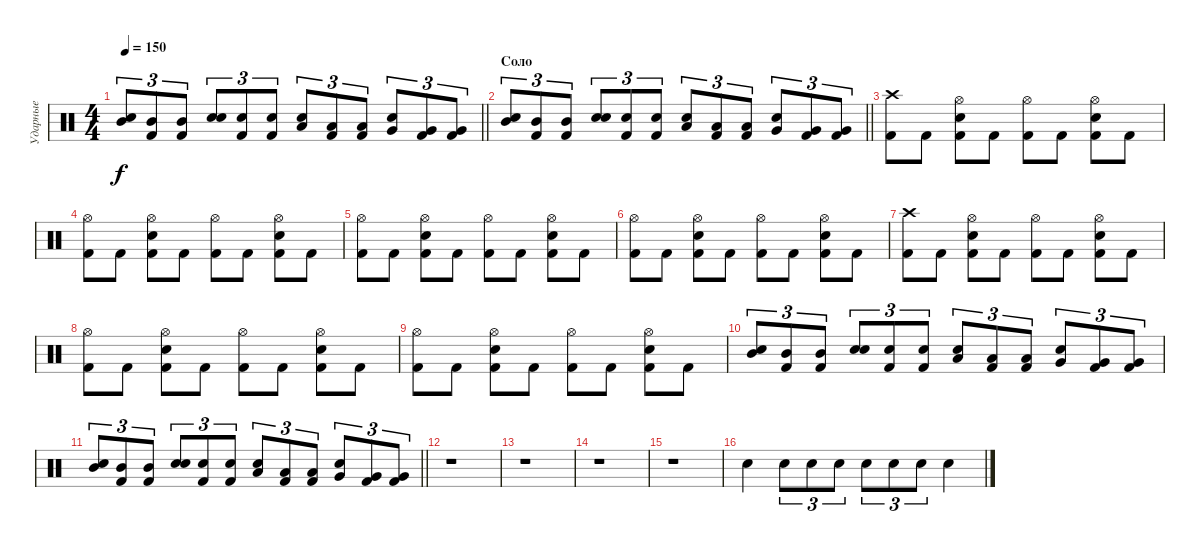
\track ("Ударные" "Ударные") {instrument percussion}
\staff {score}
\articulation defaults
\ts (4 4)
\tempo 150
\clef neutral
\barLineRight lightlight
\ks c
("Mid Tom (hit)" "Snare (hit) 2").8{tu (3 2) dy f} ("Mid Tom (hit)" "Kick (hit) 2").8{tu (3 2)} ("Mid Tom (hit)" "Kick (hit) 2").8{tu (3 2)} ("Electric Snare (hit)" "Snare (hit) 2").8{tu (3 2)} ("Electric Snare (hit)" "Kick (hit) 2").8{tu (3 2)} ("Electric Snare (hit)" "Kick (hit) 2").8{tu (3 2)} ("Low Tom (hit)" "Snare (hit) 2").8{tu (3 2)} ("Low Tom (hit)" "Kick (hit) 2").8{tu (3 2)} ("Low Tom (hit)" "Kick (hit) 2").8{tu (3 2)} ("Very Low Tom (hit)" "Snare (hit) 2").8{tu (3 2)} ("Very Low Tom (hit)" "Kick (hit) 2").8{tu (3 2)} ("Very Low Tom (hit)" "Kick (hit) 2").8{tu (3 2)} |
\section ("" "Соло")
\barLineRight lightlight
("Mid Tom (hit)" "Snare (hit) 2").8{tu (3 2)} ("Mid Tom (hit)" "Kick (hit) 2").8{tu (3 2)} ("Mid Tom (hit)" "Kick (hit) 2").8{tu (3 2)} ("Electric Snare (hit)" "Snare (hit) 2").8{tu (3 2)} ("Electric Snare (hit)" "Kick (hit) 2").8{tu (3 2)} ("Electric Snare (hit)" "Kick (hit) 2").8{tu (3 2)} ("Low Tom (hit)" "Snare (hit) 2").8{tu (3 2)} ("Low Tom (hit)" "Kick (hit) 2").8{tu (3 2)} ("Low Tom (hit)" "Kick (hit) 2").8{tu (3 2)} ("Very Low Tom (hit)" "Snare (hit) 2").8{tu (3 2)} ("Very Low Tom (hit)" "Kick (hit) 2").8{tu (3 2)} ("Very Low Tom (hit)" "Kick (hit) 2").8{tu (3 2)} |
("Kick (hit) 2" "Crash high (hit)").8 "Kick (hit) 2".8 ("Snare (hit) 2" "Kick (hit) 2" "Hi-Hat (open)").8 "Kick (hit) 2".8 ("Kick (hit) 2" "Hi-Hat (open)").8 "Kick (hit) 2".8 ("Snare (hit) 2" "Kick (hit) 2" "Hi-Hat (open)").8 "Kick (hit) 2".8 |
("Kick (hit) 2" "Hi-Hat (open)").8 "Kick (hit) 2".8 ("Snare (hit) 2" "Kick (hit) 2" "Hi-Hat (open)").8 "Kick (hit) 2".8 ("Kick (hit) 2" "Hi-Hat (open)").8 "Kick (hit) 2".8 ("Snare (hit) 2" "Kick (hit) 2" "Hi-Hat (open)").8 "Kick (hit) 2".8 |
("Kick (hit) 2" "Hi-Hat (open)").8 "Kick (hit) 2".8 ("Snare (hit) 2" "Kick (hit) 2" "Hi-Hat (open)").8 "Kick (hit) 2".8 ("Kick (hit) 2" "Hi-Hat (open)").8 "Kick (hit) 2".8 ("Snare (hit) 2" "Kick (hit) 2" "Hi-Hat (open)").8 "Kick (hit) 2".8 |
("Kick (hit) 2" "Hi-Hat (open)").8 "Kick (hit) 2".8 ("Snare (hit) 2" "Kick (hit) 2" "Hi-Hat (open)").8 "Kick (hit) 2".8 ("Kick (hit) 2" "Hi-Hat (open)").8 "Kick (hit) 2".8 ("Snare (hit) 2" "Kick (hit) 2" "Hi-Hat (open)").8 "Kick (hit) 2".8 |
("Kick (hit) 2" "Crash high (hit)").8 "Kick (hit) 2".8 ("Snare (hit) 2" "Kick (hit) 2" "Hi-Hat (open)").8 "Kick (hit) 2".8 ("Kick (hit) 2" "Hi-Hat (open)").8 "Kick (hit) 2".8 ("Snare (hit) 2" "Kick (hit) 2" "Hi-Hat (open)").8 "Kick (hit) 2".8 |
("Kick (hit) 2" "Hi-Hat (open)").8 "Kick (hit) 2".8 ("Snare (hit) 2" "Kick (hit) 2" "Hi-Hat (open)").8 "Kick (hit) 2".8 ("Kick (hit) 2" "Hi-Hat (open)").8 "Kick (hit) 2".8 ("Snare (hit) 2" "Kick (hit) 2" "Hi-Hat (open)").8 "Kick (hit) 2".8 |
("Kick (hit) 2" "Hi-Hat (open)").8 "Kick (hit) 2".8 ("Snare (hit) 2" "Kick (hit) 2" "Hi-Hat (open)").8 "Kick (hit) 2".8 ("Kick (hit) 2" "Hi-Hat (open)").8 "Kick (hit) 2".8 ("Snare (hit) 2" "Kick (hit) 2" "Hi-Hat (open)").8 "Kick (hit) 2".8 |
("Mid Tom (hit)" "Snare (hit) 2").8{tu (3 2)} ("Mid Tom (hit)" "Kick (hit) 2").8{tu (3 2)} ("Mid Tom (hit)" "Kick (hit) 2").8{tu (3 2)} ("Electric Snare (hit)" "Snare (hit) 2").8{tu (3 2)} ("Electric Snare (hit)" "Kick (hit) 2").8{tu (3 2)} ("Electric Snare (hit)" "Kick (hit) 2").8{tu (3 2)} ("Low Tom (hit)" "Snare (hit) 2").8{tu (3 2)} ("Low Tom (hit)" "Kick (hit) 2").8{tu (3 2)} ("Low Tom (hit)" "Kick (hit) 2").8{tu (3 2)} ("Very Low Tom (hit)" "Snare (hit) 2").8{tu (3 2)} ("Very Low Tom (hit)" "Kick (hit) 2").8{tu (3 2)} ("Very Low Tom (hit)" "Kick (hit) 2").8{tu (3 2)} |
\barLineRight lightlight
("Mid Tom (hit)" "Snare (hit) 2").8{tu (3 2)} ("Mid Tom (hit)" "Kick (hit) 2").8{tu (3 2)} ("Mid Tom (hit)" "Kick (hit) 2").8{tu (3 2)} ("Electric Snare (hit)" "Snare (hit) 2").8{tu (3 2)} ("Electric Snare (hit)" "Kick (hit) 2").8{tu (3 2)} ("Electric Snare (hit)" "Kick (hit) 2").8{tu (3 2)} ("Low Tom (hit)" "Snare (hit) 2").8{tu (3 2)} ("Low Tom (hit)" "Kick (hit) 2").8{tu (3 2)} ("Low Tom (hit)" "Kick (hit) 2").8{tu (3 2)} ("Very Low Tom (hit)" "Snare (hit) 2").8{tu (3 2)} ("Very Low Tom (hit)" "Kick (hit) 2").8{tu (3 2)} ("Very Low Tom (hit)" "Kick (hit) 2").8{tu (3 2)} |
r.1 |
r.1 |
r.1 |
r.1 |
"Snare (hit) 2".4 "Snare (hit) 2".8{tu (3 2)} "Snare (hit) 2".8{tu (3 2)} "Snare (hit) 2".8{tu (3 2)} "Snare (hit) 2".8{tu (3 2)} "Snare (hit) 2".8{tu (3 2)} "Snare (hit) 2".8{tu (3 2)} "Snare (hit) 2".4
